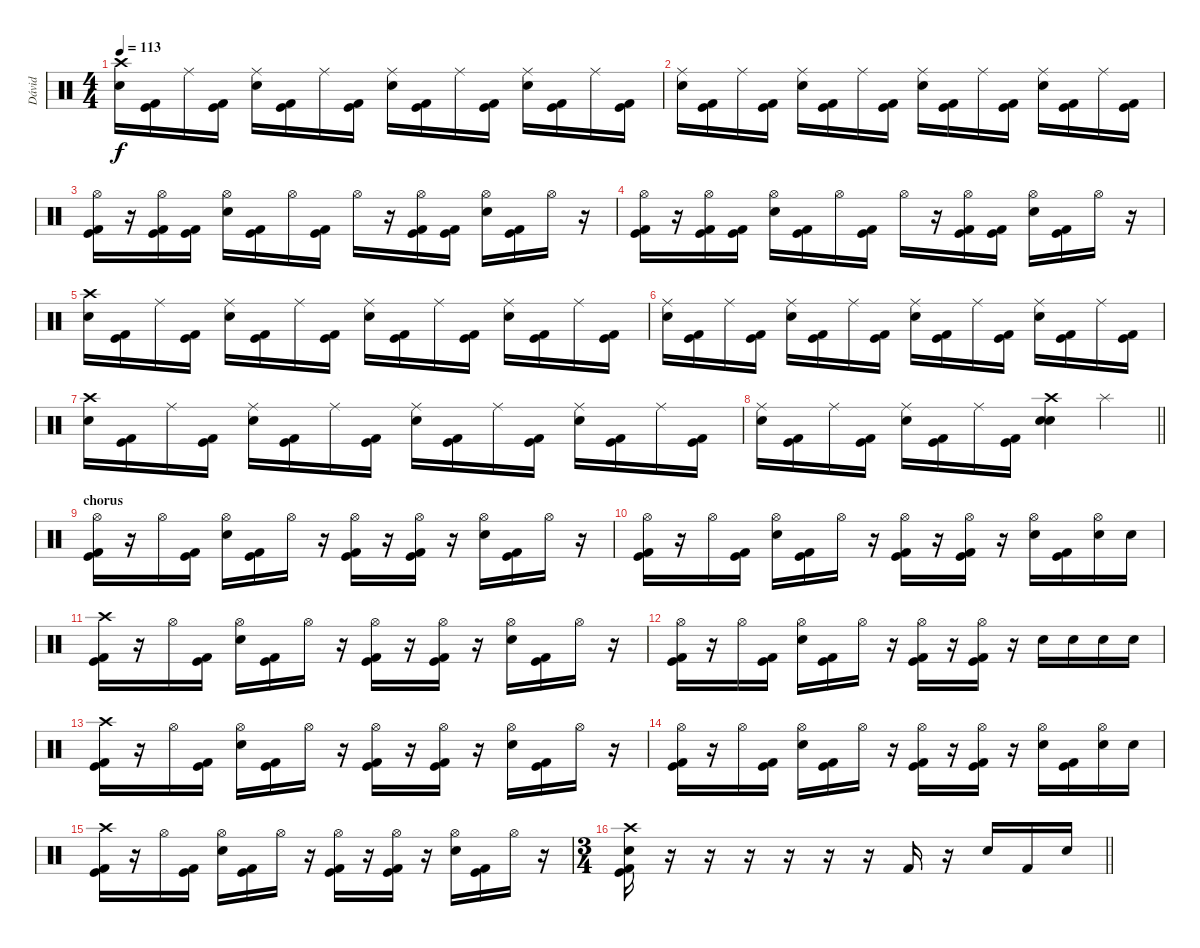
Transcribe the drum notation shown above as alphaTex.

\track ("Dávid" "Dávid") {instrument percussion}
\staff {score}
\articulation defaults
\ts (4 4)
\tempo 113
\clef neutral
\ks c
("Crash high (hit)" "Snare (hit) 2").16{dy f} ("Kick (hit)" "Kick (hit) 2").16 "Ride (middle)".16 ("Kick (hit)" "Kick (hit) 2").16 ("Ride (middle)" "Snare (hit) 2").16 ("Kick (hit)" "Kick (hit) 2").16 "Ride (middle)".16 ("Kick (hit)" "Kick (hit) 2").16 ("Ride (middle)" "Snare (hit) 2").16 ("Kick (hit)" "Kick (hit) 2").16 "Ride (middle)".16 ("Kick (hit)" "Kick (hit) 2").16 ("Ride (middle)" "Snare (hit) 2").16 ("Kick (hit)" "Kick (hit) 2").16 "Ride (middle)".16 ("Kick (hit)" "Kick (hit) 2").16 |
("Ride (middle)" "Snare (hit) 2").16 ("Kick (hit)" "Kick (hit) 2").16 "Ride (middle)".16 ("Kick (hit)" "Kick (hit) 2").16 ("Ride (middle)" "Snare (hit) 2").16 ("Kick (hit)" "Kick (hit) 2").16 "Ride (middle)".16 ("Kick (hit)" "Kick (hit) 2").16 ("Ride (middle)" "Snare (hit) 2").16 ("Kick (hit)" "Kick (hit) 2").16 "Ride (middle)".16 ("Kick (hit)" "Kick (hit) 2").16 ("Ride (middle)" "Snare (hit) 2").16 ("Kick (hit)" "Kick (hit) 2").16 "Ride (middle)".16 ("Kick (hit)" "Kick (hit) 2").16 |
("Hi-Hat (open)" "Kick (hit)" "Kick (hit) 2").16 r.16 ("Hi-Hat (open)" "Kick (hit)" "Kick (hit) 2").16 ("Kick (hit)" "Kick (hit) 2").16 ("Hi-Hat (open)" "Snare (hit) 2").16 ("Kick (hit)" "Kick (hit) 2").16 "Hi-Hat (open)".16 ("Kick (hit)" "Kick (hit) 2").16 "Hi-Hat (open)".16 r.16 ("Hi-Hat (open)" "Kick (hit)" "Kick (hit) 2").16 ("Kick (hit) 2" "Kick (hit)").16 ("Hi-Hat (open)" "Snare (hit) 2").16 ("Kick (hit)" "Kick (hit) 2").16 "Hi-Hat (open)".16 r.16 |
("Hi-Hat (open)" "Kick (hit)" "Kick (hit) 2").16 r.16 ("Hi-Hat (open)" "Kick (hit)" "Kick (hit) 2").16 ("Kick (hit)" "Kick (hit) 2").16 ("Hi-Hat (open)" "Snare (hit) 2").16 ("Kick (hit)" "Kick (hit) 2").16 "Hi-Hat (open)".16 ("Kick (hit)" "Kick (hit) 2").16 "Hi-Hat (open)".16 r.16 ("Hi-Hat (open)" "Kick (hit)" "Kick (hit) 2").16 ("Kick (hit) 2" "Kick (hit)").16 ("Hi-Hat (open)" "Snare (hit) 2").16 ("Kick (hit)" "Kick (hit) 2").16 "Hi-Hat (open)".16 r.16 |
("Crash high (hit)" "Snare (hit) 2").16 ("Kick (hit)" "Kick (hit) 2").16 "Ride (middle)".16 ("Kick (hit)" "Kick (hit) 2").16 ("Ride (middle)" "Snare (hit) 2").16 ("Kick (hit)" "Kick (hit) 2").16 "Ride (middle)".16 ("Kick (hit)" "Kick (hit) 2").16 ("Ride (middle)" "Snare (hit) 2").16 ("Kick (hit)" "Kick (hit) 2").16 "Ride (middle)".16 ("Kick (hit)" "Kick (hit) 2").16 ("Ride (middle)" "Snare (hit) 2").16 ("Kick (hit)" "Kick (hit) 2").16 "Ride (middle)".16 ("Kick (hit)" "Kick (hit) 2").16 |
("Ride (middle)" "Snare (hit) 2").16 ("Kick (hit)" "Kick (hit) 2").16 "Ride (middle)".16 ("Kick (hit)" "Kick (hit) 2").16 ("Ride (middle)" "Snare (hit) 2").16 ("Kick (hit)" "Kick (hit) 2").16 "Ride (middle)".16 ("Kick (hit)" "Kick (hit) 2").16 ("Ride (middle)" "Snare (hit) 2").16 ("Kick (hit)" "Kick (hit) 2").16 "Ride (middle)".16 ("Kick (hit)" "Kick (hit) 2").16 ("Ride (middle)" "Snare (hit) 2").16 ("Kick (hit)" "Kick (hit) 2").16 "Ride (middle)".16 ("Kick (hit)" "Kick (hit) 2").16 |
("Crash high (hit)" "Snare (hit) 2").16 ("Kick (hit)" "Kick (hit) 2").16 "Ride (middle)".16 ("Kick (hit)" "Kick (hit) 2").16 ("Ride (middle)" "Snare (hit) 2").16 ("Kick (hit)" "Kick (hit) 2").16 "Ride (middle)".16 ("Kick (hit)" "Kick (hit) 2").16 ("Ride (middle)" "Snare (hit) 2").16 ("Kick (hit)" "Kick (hit) 2").16 "Ride (middle)".16 ("Kick (hit)" "Kick (hit) 2").16 ("Ride (middle)" "Snare (hit) 2").16 ("Kick (hit)" "Kick (hit) 2").16 "Ride (middle)".16 ("Kick (hit)" "Kick (hit) 2").16 |
\barLineRight lightlight
("Ride (middle)" "Snare (hit) 2").16 ("Kick (hit)" "Kick (hit) 2").16 "Ride (middle)".16 ("Kick (hit)" "Kick (hit) 2").16 ("Ride (middle)" "Snare (hit) 2").16 ("Kick (hit)" "Kick (hit) 2").16 "Ride (middle)".16 ("Kick (hit)" "Kick (hit) 2").16 ("Crash high (hit)" "Snare (hit) 2" "Snare (hit) 2").4 "Splash (hit)".4 |
\section ("" "chorus")
("Hi-Hat (open)" "Kick (hit) 2" "Kick (hit)").16 r.16 "Hi-Hat (open)".16 ("Kick (hit) 2" "Kick (hit)").16 ("Hi-Hat (open)" "Snare (hit) 2").16 ("Kick (hit) 2" "Kick (hit)").16 "Hi-Hat (open)".16 r.16 ("Hi-Hat (open)" "Kick (hit) 2" "Kick (hit)").16 r.16 ("Hi-Hat (open)" "Kick (hit) 2" "Kick (hit)").16 r.16 ("Hi-Hat (open)" "Snare (hit) 2").16 ("Kick (hit) 2" "Kick (hit)").16 "Hi-Hat (open)".16 r.16 |
("Hi-Hat (open)" "Kick (hit) 2" "Kick (hit)").16 r.16 "Hi-Hat (open)".16 ("Kick (hit) 2" "Kick (hit)").16 ("Hi-Hat (open)" "Snare (hit) 2").16 ("Kick (hit) 2" "Kick (hit)").16 "Hi-Hat (open)".16 r.16 ("Hi-Hat (open)" "Kick (hit) 2" "Kick (hit)").16 r.16 ("Hi-Hat (open)" "Kick (hit) 2" "Kick (hit)").16 r.16 ("Hi-Hat (open)" "Snare (hit) 2").16 ("Kick (hit) 2" "Kick (hit)").16 ("Hi-Hat (open)" "Snare (hit) 2").16 "Snare (hit) 2".16 |
("Crash high (hit)" "Kick (hit) 2" "Kick (hit)").16 r.16 "Hi-Hat (open)".16 ("Kick (hit) 2" "Kick (hit)").16 ("Hi-Hat (open)" "Snare (hit) 2").16 ("Kick (hit) 2" "Kick (hit)").16 "Hi-Hat (open)".16 r.16 ("Hi-Hat (open)" "Kick (hit) 2" "Kick (hit)").16 r.16 ("Hi-Hat (open)" "Kick (hit) 2" "Kick (hit)").16 r.16 ("Hi-Hat (open)" "Snare (hit) 2").16 ("Kick (hit) 2" "Kick (hit)").16 "Hi-Hat (open)".16 r.16 |
("Hi-Hat (open)" "Kick (hit) 2" "Kick (hit)").16 r.16 "Hi-Hat (open)".16 ("Kick (hit) 2" "Kick (hit)").16 ("Hi-Hat (open)" "Snare (hit) 2").16 ("Kick (hit) 2" "Kick (hit)").16 "Hi-Hat (open)".16 r.16 ("Hi-Hat (open)" "Kick (hit) 2" "Kick (hit)").16 r.16 ("Hi-Hat (open)" "Kick (hit) 2" "Kick (hit)").16 r.16 "Snare (hit) 2".16 "Snare (hit) 2".16 "Snare (hit) 2".16 "Snare (hit) 2".16 |
("Crash high (hit)" "Kick (hit) 2" "Kick (hit)").16 r.16 "Hi-Hat (open)".16 ("Kick (hit) 2" "Kick (hit)").16 ("Hi-Hat (open)" "Snare (hit) 2").16 ("Kick (hit) 2" "Kick (hit)").16 "Hi-Hat (open)".16 r.16 ("Hi-Hat (open)" "Kick (hit) 2" "Kick (hit)").16 r.16 ("Hi-Hat (open)" "Kick (hit) 2" "Kick (hit)").16 r.16 ("Hi-Hat (open)" "Snare (hit) 2").16 ("Kick (hit) 2" "Kick (hit)").16 "Hi-Hat (open)".16 r.16 |
("Hi-Hat (open)" "Kick (hit) 2" "Kick (hit)").16 r.16 "Hi-Hat (open)".16 ("Kick (hit) 2" "Kick (hit)").16 ("Hi-Hat (open)" "Snare (hit) 2").16 ("Kick (hit) 2" "Kick (hit)").16 "Hi-Hat (open)".16 r.16 ("Hi-Hat (open)" "Kick (hit) 2" "Kick (hit)").16 r.16 ("Hi-Hat (open)" "Kick (hit) 2" "Kick (hit)").16 r.16 ("Hi-Hat (open)" "Snare (hit) 2").16 ("Kick (hit) 2" "Kick (hit)").16 ("Hi-Hat (open)" "Snare (hit) 2").16 "Snare (hit) 2".16 |
("Crash high (hit)" "Kick (hit) 2" "Kick (hit)").16 r.16 "Hi-Hat (open)".16 ("Kick (hit) 2" "Kick (hit)").16 ("Hi-Hat (open)" "Snare (hit) 2").16 ("Kick (hit) 2" "Kick (hit)").16 "Hi-Hat (open)".16 r.16 ("Hi-Hat (open)" "Kick (hit) 2" "Kick (hit)").16 r.16 ("Hi-Hat (open)" "Kick (hit) 2" "Kick (hit)").16 r.16 ("Hi-Hat (open)" "Snare (hit) 2").16 ("Kick (hit) 2" "Kick (hit)").16 "Hi-Hat (open)".16 r.16 |
\ts (3 4)
\barLineRight lightlight
("Crash high (hit)" "Snare (hit) 2" "Kick (hit) 2" "Kick (hit)").16 r.16 r.16 r.16 r.16 r.16 r.16 "Kick (hit) 2".16 r.16 "Snare (hit) 2".16 "Kick (hit) 2".16 "Snare (hit) 2".16
